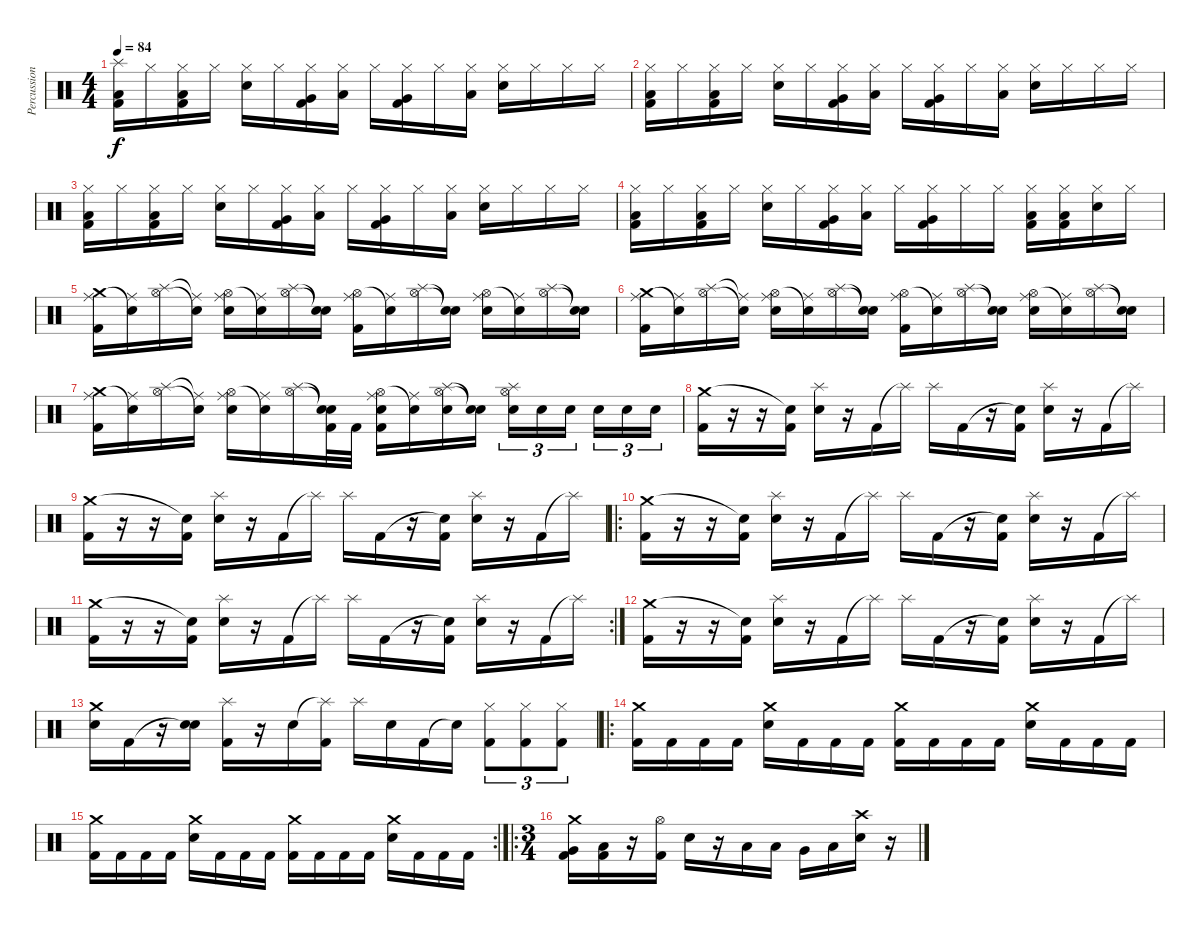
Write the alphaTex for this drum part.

\track ("Percussion" "Percussion") {instrument percussion}
\staff {score}
\articulation defaults
\ts (4 4)
\tempo 84
\clef neutral
\ks c
("Splash (hit)" "Low Floor Tom (hit)" "Kick (hit) 2").16{dy f} "Hi-Hat (closed)".16 ("Hi-Hat (closed)" "Low Floor Tom (hit)" "Kick (hit) 2").16 "Hi-Hat (closed)".16 ("Hi-Hat (closed)" "Electric Snare (hit)").16 "Hi-Hat (closed)".16 ("Hi-Hat (closed)" "Very Low Tom (hit)" "Kick (hit) 2").16 ("Hi-Hat (closed)" "Low Floor Tom (hit)").16 "Hi-Hat (closed)".16 ("Hi-Hat (closed)" "Very Low Tom (hit)" "Kick (hit) 2").16 "Hi-Hat (closed)".16 ("Hi-Hat (closed)" "Low Floor Tom (hit)").16 ("Hi-Hat (closed)" "Electric Snare (hit)").16 "Hi-Hat (closed)".16 "Hi-Hat (closed)".16 "Hi-Hat (closed)".16 |
("Hi-Hat (closed)" "Low Floor Tom (hit)" "Kick (hit) 2").16 "Hi-Hat (closed)".16 ("Hi-Hat (closed)" "Low Floor Tom (hit)" "Kick (hit) 2").16 "Hi-Hat (closed)".16 ("Hi-Hat (closed)" "Electric Snare (hit)").16 "Hi-Hat (closed)".16 ("Hi-Hat (closed)" "Very Low Tom (hit)" "Kick (hit) 2").16 ("Hi-Hat (closed)" "Low Floor Tom (hit)").16 "Hi-Hat (closed)".16 ("Hi-Hat (closed)" "Very Low Tom (hit)" "Kick (hit) 2").16 "Hi-Hat (closed)".16 ("Hi-Hat (closed)" "Low Floor Tom (hit)").16 ("Hi-Hat (closed)" "Electric Snare (hit)").16 "Hi-Hat (closed)".16 "Hi-Hat (closed)".16 "Hi-Hat (closed)".16 |
("Hi-Hat (closed)" "Low Floor Tom (hit)" "Kick (hit) 2").16 "Hi-Hat (closed)".16 ("Hi-Hat (closed)" "Low Floor Tom (hit)" "Kick (hit) 2").16 "Hi-Hat (closed)".16 ("Hi-Hat (closed)" "Electric Snare (hit)").16 "Hi-Hat (closed)".16 ("Hi-Hat (closed)" "Very Low Tom (hit)" "Kick (hit) 2").16 ("Hi-Hat (closed)" "Low Floor Tom (hit)").16 "Hi-Hat (closed)".16 ("Hi-Hat (closed)" "Very Low Tom (hit)" "Kick (hit) 2").16 "Hi-Hat (closed)".16 ("Hi-Hat (closed)" "Low Floor Tom (hit)").16 ("Hi-Hat (closed)" "Electric Snare (hit)").16 "Hi-Hat (closed)".16 "Hi-Hat (closed)".16 "Hi-Hat (closed)".16 |
("Hi-Hat (closed)" "Low Floor Tom (hit)" "Kick (hit) 2").16 "Hi-Hat (closed)".16 ("Hi-Hat (closed)" "Low Floor Tom (hit)" "Kick (hit) 2").16 "Hi-Hat (closed)".16 ("Hi-Hat (closed)" "Electric Snare (hit)").16 "Hi-Hat (closed)".16 ("Hi-Hat (closed)" "Very Low Tom (hit)" "Kick (hit) 2").16 ("Hi-Hat (closed)" "Low Floor Tom (hit)").16 "Hi-Hat (closed)".16 ("Hi-Hat (closed)" "Very Low Tom (hit)" "Kick (hit) 2").16 "Hi-Hat (closed)".16 "Hi-Hat (closed)".16 ("Hi-Hat (closed)" "Low Floor Tom (hit)" "Kick (hit) 2").16 ("Hi-Hat (closed)" "Low Floor Tom (hit)" "Kick (hit) 2").16 ("Hi-Hat (closed)" "Electric Snare (hit)").16 "Hi-Hat (closed)".16 |
("Crash medium (hit)" "Ride (middle)" "Kick (hit) 2").16 ("Snare (hit)"{t} "Ride (middle)").16 ("Hi-Hat (open)" "Splash (hit)").16 ("Snare (hit)"{t} "Ride (middle)"{t}).16 ("Hi-Hat (open)" "Ride (middle)" "Electric Snare (hit)").16 ("Snare (hit)"{t} "Ride (middle)").16 ("Hi-Hat (open)" "Splash (hit)").16 ("Snare (hit)"{t} "Snare (hit)"{t}).16 ("Hi-Hat (open)" "Ride (middle)" "Kick (hit) 2").16 ("Snare (hit)"{t} "Ride (middle)").16 ("Hi-Hat (open)" "Splash (hit)").16 ("Snare (hit)"{t} "Snare (hit)"{t}).16 ("Hi-Hat (open)" "Ride (middle)" "Electric Snare (hit)").16 ("Snare (hit)"{t} "Ride (middle)").16 ("Hi-Hat (open)" "Splash (hit)").16 ("Snare (hit)"{t} "Snare (hit)"{t}).16 |
("Crash medium (hit)" "Ride (middle)" "Kick (hit) 2").16 ("Snare (hit)"{t} "Ride (middle)").16 ("Hi-Hat (open)" "Splash (hit)").16 ("Snare (hit)"{t} "Ride (middle)"{t}).16 ("Hi-Hat (open)" "Ride (middle)" "Electric Snare (hit)").16 ("Snare (hit)"{t} "Ride (middle)").16 ("Hi-Hat (open)" "Splash (hit)").16 ("Snare (hit)"{t} "Snare (hit)"{t}).16 ("Hi-Hat (open)" "Ride (middle)" "Kick (hit) 2").16 ("Snare (hit)"{t} "Ride (middle)").16 ("Hi-Hat (open)" "Splash (hit)").16 ("Snare (hit)"{t} "Snare (hit)"{t}).16 ("Hi-Hat (open)" "Ride (middle)" "Electric Snare (hit)").16 ("Snare (hit)"{t} "Ride (middle)").16 ("Hi-Hat (open)" "Splash (hit)").16 ("Snare (hit)"{t} "Snare (hit)"{t}).16 |
("Crash medium (hit)" "Ride (middle)" "Kick (hit) 2").16 ("Snare (hit)"{t} "Ride (middle)").16 ("Hi-Hat (open)" "Splash (hit)").16 ("Snare (hit)"{t} "Ride (middle)"{t}).16 ("Hi-Hat (open)" "Ride (middle)" "Electric Snare (hit)").16 ("Snare (hit)"{t} "Ride (middle)").16 ("Hi-Hat (open)" "Splash (hit)").16 ("Snare (hit)"{t} "Snare (hit)"{t} "Kick (hit) 2").32 "Kick (hit) 2".32 ("Hi-Hat (open)" "Ride (middle)" "Electric Snare (hit)" "Kick (hit) 2").16 ("Snare (hit)"{t} "Ride (middle)").16 ("Hi-Hat (open)" "Splash (hit)" "Electric Snare (hit)").16 ("Snare (hit)"{t} "Snare (hit)"{t}).16 ("Hi-Hat (open)" "Splash (hit)" "Electric Snare (hit)").16{tu (3 2)} "Electric Snare (hit)".16{tu (3 2)} "Electric Snare (hit)".16{tu (3 2)} "Electric Snare (hit)".16{tu (3 2)} "Electric Snare (hit)".16{tu (3 2)} "Electric Snare (hit)".16{tu (3 2)} |
("Crash medium (hit)" "Kick (hit) 2").16 r.16 r.16 ("Snare (hit)"{t} "Kick (hit) 2").16 ("Splash (hit)" "Electric Snare (hit)").16 r.16 "Kick (hit) 2".16 "Splash (hit)"{t}.16 "Splash (hit)".16 "Kick (hit) 2".16 r.16 ("Snare (hit)"{t} "Kick (hit) 2").16 ("Splash (hit)" "Electric Snare (hit)").16 r.16 "Kick (hit) 2".16 "Splash (hit)"{t}.16 |
("Crash medium (hit)" "Kick (hit) 2").16 r.16 r.16 ("Snare (hit)"{t} "Kick (hit) 2").16 ("Splash (hit)" "Electric Snare (hit)").16 r.16 "Kick (hit) 2".16 "Splash (hit)"{t}.16 "Splash (hit)".16 "Kick (hit) 2".16 r.16 ("Snare (hit)"{t} "Kick (hit) 2").16 ("Splash (hit)" "Electric Snare (hit)").16 r.16 "Kick (hit) 2".16 "Splash (hit)"{t}.16 |
\ro
("Crash medium (hit)" "Kick (hit) 2").16 r.16 r.16 ("Snare (hit)"{t} "Kick (hit) 2").16 ("Splash (hit)" "Electric Snare (hit)").16 r.16 "Kick (hit) 2".16 "Splash (hit)"{t}.16 "Splash (hit)".16 "Kick (hit) 2".16 r.16 ("Snare (hit)"{t} "Kick (hit) 2").16 ("Splash (hit)" "Electric Snare (hit)").16 r.16 "Kick (hit) 2".16 "Splash (hit)"{t}.16 |
\rc 2
("Crash medium (hit)" "Kick (hit) 2").16 r.16 r.16 ("Snare (hit)"{t} "Kick (hit) 2").16 ("Splash (hit)" "Electric Snare (hit)").16 r.16 "Kick (hit) 2".16 "Splash (hit)"{t}.16 "Splash (hit)".16 "Kick (hit) 2".16 r.16 ("Snare (hit)"{t} "Kick (hit) 2").16 ("Splash (hit)" "Electric Snare (hit)").16 r.16 "Kick (hit) 2".16 "Splash (hit)"{t}.16 |
("Crash medium (hit)" "Kick (hit) 2").16 r.16 r.16 ("Snare (hit)"{t} "Kick (hit) 2").16 ("Splash (hit)" "Electric Snare (hit)").16 r.16 "Kick (hit) 2".16 "Splash (hit)"{t}.16 "Splash (hit)".16 "Kick (hit) 2".16 r.16 ("Snare (hit)"{t} "Kick (hit) 2").16 ("Splash (hit)" "Electric Snare (hit)").16 r.16 "Kick (hit) 2".16 "Splash (hit)"{t}.16 |
("Crash medium (hit)" "Electric Snare (hit)").16 "Kick (hit) 2".16 r.16 ("Snare (hit)"{t} "Electric Snare (hit)").16 ("Splash (hit)" "Kick (hit) 2").16 r.16 "Electric Snare (hit)".16 ("Splash (hit)"{t} "Kick (hit) 2").16 "Splash (hit)".16 "Electric Snare (hit)".16 "Kick (hit) 2".16 "Snare (hit)"{t}.16 ("Hi-Hat (closed)" "Kick (hit) 2").8{tu (3 2)} ("Hi-Hat (closed)" "Kick (hit) 2").8{tu (3 2)} ("Hi-Hat (closed)" "Kick (hit) 2").8{tu (3 2)} |
\ro
("Crash medium (hit)" "Kick (hit) 2").16 "Kick (hit) 2".16 "Kick (hit) 2".16 "Kick (hit) 2".16 ("Crash medium (hit)" "Electric Snare (hit)").16 "Kick (hit) 2".16 "Kick (hit) 2".16 "Kick (hit) 2".16 ("Crash medium (hit)" "Kick (hit) 2").16 "Kick (hit) 2".16 "Kick (hit) 2".16 "Kick (hit) 2".16 ("Crash medium (hit)" "Electric Snare (hit)").16 "Kick (hit) 2".16 "Kick (hit) 2".16 "Kick (hit) 2".16 |
\rc 2
("Crash medium (hit)" "Kick (hit) 2").16 "Kick (hit) 2".16 "Kick (hit) 2".16 "Kick (hit) 2".16 ("Crash medium (hit)" "Electric Snare (hit)").16 "Kick (hit) 2".16 "Kick (hit) 2".16 "Kick (hit) 2".16 ("Crash medium (hit)" "Kick (hit) 2").16 "Kick (hit) 2".16 "Kick (hit) 2".16 "Kick (hit) 2".16 ("Crash medium (hit)" "Electric Snare (hit)").16 "Kick (hit) 2".16 "Kick (hit) 2".16 "Kick (hit) 2".16 |
\ro
\ts (3 4)
("Crash medium (hit)" "Very Low Tom (hit)" "Kick (hit) 2").16 ("Low Floor Tom (hit)" "Kick (hit) 2").16 r.16 ("Hi-Hat (open)" "Kick (hit) 2").16 "Electric Snare (hit)".16 r.16 "Low Floor Tom (hit)".16 "Low Floor Tom (hit)".16 "Very Low Tom (hit)".16 "Low Floor Tom (hit)".16 ("Crash high (hit)" "Electric Snare (hit)").16 r.16
